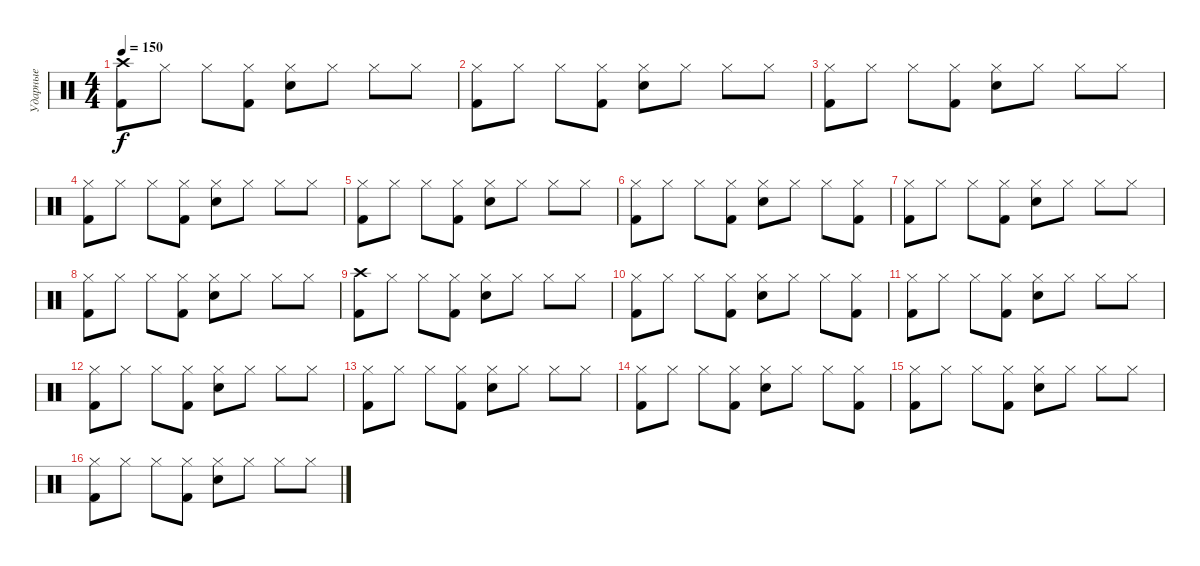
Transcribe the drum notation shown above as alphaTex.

\track ("Ударные" "Ударные") {instrument percussion}
\staff {score}
\articulation defaults
\ts (4 4)
\tempo 150
\clef neutral
\ks c
("Crash high (hit)" "Kick (hit) 2").8{dy f} "Hi-Hat (closed)".8 "Hi-Hat (closed)".8 ("Hi-Hat (closed)" "Kick (hit) 2").8 ("Hi-Hat (closed)" "Electric Snare (hit)").8 "Hi-Hat (closed)".8 "Hi-Hat (closed)".8 "Hi-Hat (closed)".8 |
("Hi-Hat (closed)" "Kick (hit) 2").8 "Hi-Hat (closed)".8 "Hi-Hat (closed)".8 ("Hi-Hat (closed)" "Kick (hit) 2").8 ("Hi-Hat (closed)" "Electric Snare (hit)").8 "Hi-Hat (closed)".8 "Hi-Hat (closed)".8 "Hi-Hat (closed)".8 |
("Hi-Hat (closed)" "Kick (hit) 2").8 "Hi-Hat (closed)".8 "Hi-Hat (closed)".8 ("Hi-Hat (closed)" "Kick (hit) 2").8 ("Hi-Hat (closed)" "Electric Snare (hit)").8 "Hi-Hat (closed)".8 "Hi-Hat (closed)".8 "Hi-Hat (closed)".8 |
("Hi-Hat (closed)" "Kick (hit) 2").8 "Hi-Hat (closed)".8 "Hi-Hat (closed)".8 ("Hi-Hat (closed)" "Kick (hit) 2").8 ("Hi-Hat (closed)" "Electric Snare (hit)").8 "Hi-Hat (closed)".8 "Hi-Hat (closed)".8 "Hi-Hat (closed)".8 |
("Hi-Hat (closed)" "Kick (hit) 2").8 "Hi-Hat (closed)".8 "Hi-Hat (closed)".8 ("Hi-Hat (closed)" "Kick (hit) 2").8 ("Hi-Hat (closed)" "Electric Snare (hit)").8 "Hi-Hat (closed)".8 "Hi-Hat (closed)".8 "Hi-Hat (closed)".8 |
("Hi-Hat (closed)" "Kick (hit) 2").8 "Hi-Hat (closed)".8 "Hi-Hat (closed)".8 ("Hi-Hat (closed)" "Kick (hit) 2").8 ("Hi-Hat (closed)" "Electric Snare (hit)").8 "Hi-Hat (closed)".8 "Hi-Hat (closed)".8 ("Hi-Hat (closed)" "Kick (hit) 2").8 |
("Hi-Hat (closed)" "Kick (hit) 2").8 "Hi-Hat (closed)".8 "Hi-Hat (closed)".8 ("Hi-Hat (closed)" "Kick (hit) 2").8 ("Hi-Hat (closed)" "Electric Snare (hit)").8 "Hi-Hat (closed)".8 "Hi-Hat (closed)".8 "Hi-Hat (closed)".8 |
("Hi-Hat (closed)" "Kick (hit) 2").8 "Hi-Hat (closed)".8 "Hi-Hat (closed)".8 ("Hi-Hat (closed)" "Kick (hit) 2").8 ("Hi-Hat (closed)" "Electric Snare (hit)").8 "Hi-Hat (closed)".8 "Hi-Hat (closed)".8 "Hi-Hat (closed)".8 |
("Crash high (hit)" "Kick (hit) 2").8 "Hi-Hat (closed)".8 "Hi-Hat (closed)".8 ("Hi-Hat (closed)" "Kick (hit) 2").8 ("Hi-Hat (closed)" "Electric Snare (hit)").8 "Hi-Hat (closed)".8 "Hi-Hat (closed)".8 "Hi-Hat (closed)".8 |
("Hi-Hat (closed)" "Kick (hit) 2").8 "Hi-Hat (closed)".8 "Hi-Hat (closed)".8 ("Hi-Hat (closed)" "Kick (hit) 2").8 ("Hi-Hat (closed)" "Electric Snare (hit)").8 "Hi-Hat (closed)".8 "Hi-Hat (closed)".8 ("Hi-Hat (closed)" "Kick (hit) 2").8 |
("Hi-Hat (closed)" "Kick (hit) 2").8 "Hi-Hat (closed)".8 "Hi-Hat (closed)".8 ("Hi-Hat (closed)" "Kick (hit) 2").8 ("Hi-Hat (closed)" "Electric Snare (hit)").8 "Hi-Hat (closed)".8 "Hi-Hat (closed)".8 "Hi-Hat (closed)".8 |
("Hi-Hat (closed)" "Kick (hit) 2").8 "Hi-Hat (closed)".8 "Hi-Hat (closed)".8 ("Hi-Hat (closed)" "Kick (hit) 2").8 ("Hi-Hat (closed)" "Electric Snare (hit)").8 "Hi-Hat (closed)".8 "Hi-Hat (closed)".8 "Hi-Hat (closed)".8 |
("Hi-Hat (closed)" "Kick (hit) 2").8 "Hi-Hat (closed)".8 "Hi-Hat (closed)".8 ("Hi-Hat (closed)" "Kick (hit) 2").8 ("Hi-Hat (closed)" "Electric Snare (hit)").8 "Hi-Hat (closed)".8 "Hi-Hat (closed)".8 "Hi-Hat (closed)".8 |
("Hi-Hat (closed)" "Kick (hit) 2").8 "Hi-Hat (closed)".8 "Hi-Hat (closed)".8 ("Hi-Hat (closed)" "Kick (hit) 2").8 ("Hi-Hat (closed)" "Electric Snare (hit)").8 "Hi-Hat (closed)".8 "Hi-Hat (closed)".8 ("Hi-Hat (closed)" "Kick (hit) 2").8 |
("Hi-Hat (closed)" "Kick (hit) 2").8 "Hi-Hat (closed)".8 "Hi-Hat (closed)".8 ("Hi-Hat (closed)" "Kick (hit) 2").8 ("Hi-Hat (closed)" "Electric Snare (hit)").8 "Hi-Hat (closed)".8 "Hi-Hat (closed)".8 "Hi-Hat (closed)".8 |
("Hi-Hat (closed)" "Kick (hit) 2").8 "Hi-Hat (closed)".8 "Hi-Hat (closed)".8 ("Hi-Hat (closed)" "Kick (hit) 2").8 ("Hi-Hat (closed)" "Electric Snare (hit)").8 "Hi-Hat (closed)".8 "Hi-Hat (closed)".8 "Hi-Hat (closed)".8
